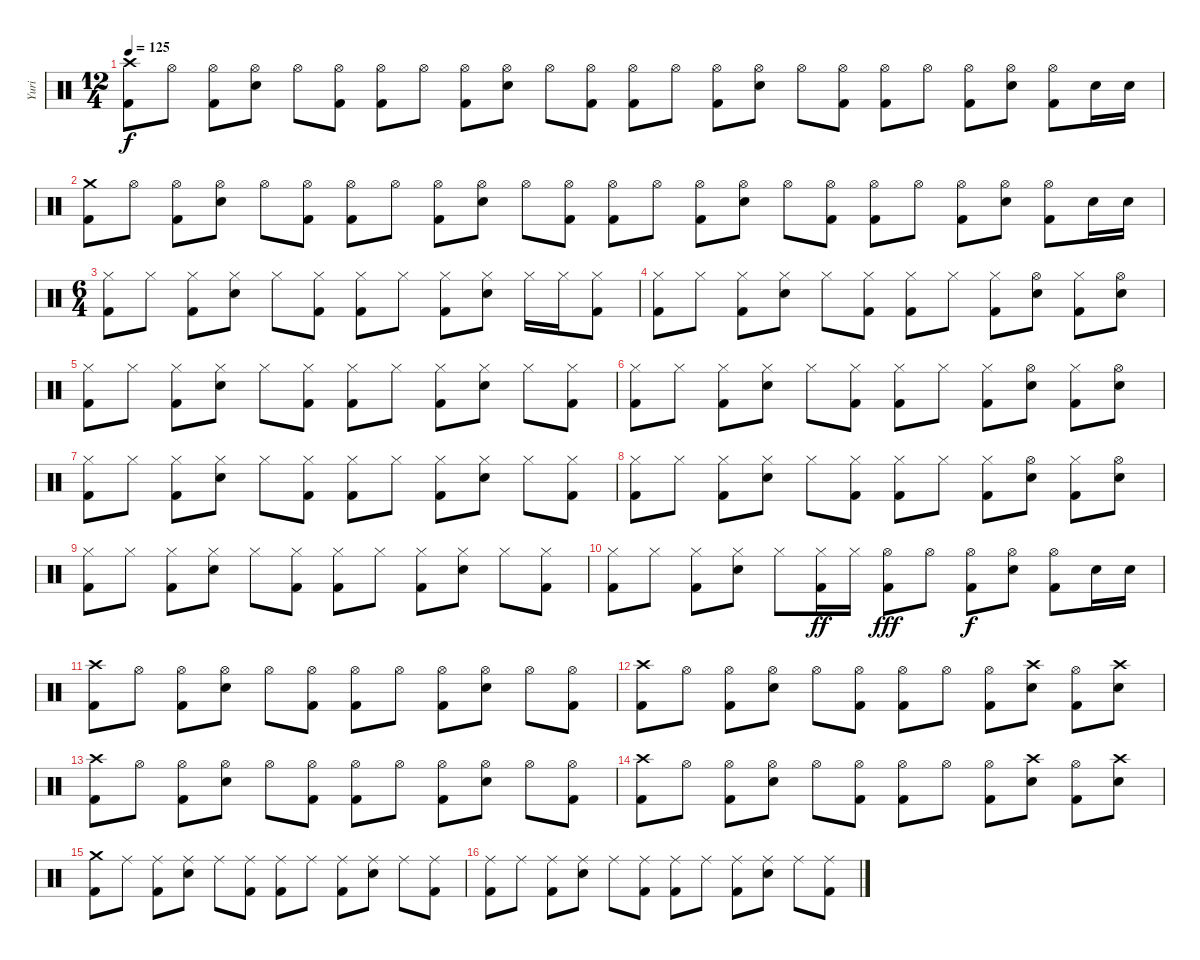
\track ("Yuri" "Yuri") {instrument percussion}
\staff {score}
\articulation defaults
\ts (12 4)
\tempo 125
\clef neutral
\ks c
("Crash high (hit)" "Kick (hit) 2").8{dy f} "Hi-Hat (open)".8 ("Hi-Hat (open)" "Kick (hit) 2").8 ("Hi-Hat (open)" "Electric Snare (hit)").8 "Hi-Hat (open)".8 ("Hi-Hat (open)" "Kick (hit) 2").8 ("Hi-Hat (open)" "Kick (hit) 2").8 "Hi-Hat (open)".8 ("Hi-Hat (open)" "Kick (hit) 2").8 ("Hi-Hat (open)" "Electric Snare (hit)").8 "Hi-Hat (open)".8 ("Hi-Hat (open)" "Kick (hit) 2").8 ("Hi-Hat (open)" "Kick (hit) 2").8 "Hi-Hat (open)".8 ("Hi-Hat (open)" "Kick (hit) 2").8 ("Hi-Hat (open)" "Electric Snare (hit)").8 "Hi-Hat (open)".8 ("Hi-Hat (open)" "Kick (hit) 2").8 ("Hi-Hat (open)" "Kick (hit) 2").8 "Hi-Hat (open)".8 ("Hi-Hat (open)" "Kick (hit) 2").8 ("Hi-Hat (open)" "Electric Snare (hit)").8 ("Hi-Hat (open)" "Kick (hit) 2").8 "Electric Snare (hit)".16 "Electric Snare (hit)".16 |
("Crash medium (hit)" "Kick (hit) 2").8 "Hi-Hat (open)".8 ("Hi-Hat (open)" "Kick (hit) 2").8 ("Hi-Hat (open)" "Electric Snare (hit)").8 "Hi-Hat (open)".8 ("Hi-Hat (open)" "Kick (hit) 2").8 ("Hi-Hat (open)" "Kick (hit) 2").8 "Hi-Hat (open)".8 ("Hi-Hat (open)" "Kick (hit) 2").8 ("Hi-Hat (open)" "Electric Snare (hit)").8 "Hi-Hat (open)".8 ("Hi-Hat (open)" "Kick (hit) 2").8 ("Hi-Hat (open)" "Kick (hit) 2").8 "Hi-Hat (open)".8 ("Hi-Hat (open)" "Kick (hit) 2").8 ("Hi-Hat (open)" "Electric Snare (hit)").8 "Hi-Hat (open)".8 ("Hi-Hat (open)" "Kick (hit) 2").8 ("Hi-Hat (open)" "Kick (hit) 2").8 "Hi-Hat (open)".8 ("Hi-Hat (open)" "Kick (hit) 2").8 ("Hi-Hat (open)" "Electric Snare (hit)").8 ("Hi-Hat (open)" "Kick (hit) 2").8 "Electric Snare (hit)".16 "Electric Snare (hit)".16 |
\ts (6 4)
("Hi-Hat (closed)" "Kick (hit) 2").8 "Hi-Hat (closed)".8 ("Hi-Hat (closed)" "Kick (hit) 2").8 ("Hi-Hat (closed)" "Electric Snare (hit)").8 "Hi-Hat (closed)".8 ("Hi-Hat (closed)" "Kick (hit) 2").8 ("Hi-Hat (closed)" "Kick (hit) 2").8 "Hi-Hat (closed)".8 ("Hi-Hat (closed)" "Kick (hit) 2").8 ("Hi-Hat (closed)" "Electric Snare (hit)").8 "Hi-Hat (closed)".16 "Hi-Hat (closed)".16 ("Hi-Hat (closed)" "Kick (hit) 2").8 |
("Hi-Hat (closed)" "Kick (hit) 2").8 "Hi-Hat (closed)".8 ("Hi-Hat (closed)" "Kick (hit) 2").8 ("Hi-Hat (closed)" "Electric Snare (hit)").8 "Hi-Hat (closed)".8 ("Hi-Hat (closed)" "Kick (hit) 2").8 ("Hi-Hat (closed)" "Kick (hit) 2").8 "Hi-Hat (closed)".8 ("Hi-Hat (closed)" "Kick (hit) 2").8 ("Hi-Hat (open)" "Electric Snare (hit)").8 ("Hi-Hat (closed)" "Kick (hit) 2").8 ("Hi-Hat (open)" "Electric Snare (hit)").8 |
("Hi-Hat (closed)" "Kick (hit) 2").8 "Hi-Hat (closed)".8 ("Hi-Hat (closed)" "Kick (hit) 2").8 ("Hi-Hat (closed)" "Electric Snare (hit)").8 "Hi-Hat (closed)".8 ("Hi-Hat (closed)" "Kick (hit) 2").8 ("Hi-Hat (closed)" "Kick (hit) 2").8 "Hi-Hat (closed)".8 ("Hi-Hat (closed)" "Kick (hit) 2").8 ("Hi-Hat (closed)" "Electric Snare (hit)").8 "Hi-Hat (closed)".8 ("Hi-Hat (closed)" "Kick (hit) 2").8 |
("Hi-Hat (closed)" "Kick (hit) 2").8 "Hi-Hat (closed)".8 ("Hi-Hat (closed)" "Kick (hit) 2").8 ("Hi-Hat (closed)" "Electric Snare (hit)").8 "Hi-Hat (closed)".8 ("Hi-Hat (closed)" "Kick (hit) 2").8 ("Hi-Hat (closed)" "Kick (hit) 2").8 "Hi-Hat (closed)".8 ("Hi-Hat (closed)" "Kick (hit) 2").8 ("Hi-Hat (open)" "Electric Snare (hit)").8 ("Hi-Hat (closed)" "Kick (hit) 2").8 ("Hi-Hat (open)" "Electric Snare (hit)").8 |
("Hi-Hat (closed)" "Kick (hit) 2").8 "Hi-Hat (closed)".8 ("Hi-Hat (closed)" "Kick (hit) 2").8 ("Hi-Hat (closed)" "Electric Snare (hit)").8 "Hi-Hat (closed)".8 ("Hi-Hat (closed)" "Kick (hit) 2").8 ("Hi-Hat (closed)" "Kick (hit) 2").8 "Hi-Hat (closed)".8 ("Hi-Hat (closed)" "Kick (hit) 2").8 ("Hi-Hat (closed)" "Electric Snare (hit)").8 "Hi-Hat (closed)".8 ("Hi-Hat (closed)" "Kick (hit) 2").8 |
("Hi-Hat (closed)" "Kick (hit) 2").8 "Hi-Hat (closed)".8 ("Hi-Hat (closed)" "Kick (hit) 2").8 ("Hi-Hat (closed)" "Electric Snare (hit)").8 "Hi-Hat (closed)".8 ("Hi-Hat (closed)" "Kick (hit) 2").8 ("Hi-Hat (closed)" "Kick (hit) 2").8 "Hi-Hat (closed)".8 ("Hi-Hat (closed)" "Kick (hit) 2").8 ("Hi-Hat (open)" "Electric Snare (hit)").8 ("Hi-Hat (closed)" "Kick (hit) 2").8 ("Hi-Hat (open)" "Electric Snare (hit)").8 |
("Hi-Hat (closed)" "Kick (hit) 2").8 "Hi-Hat (closed)".8 ("Hi-Hat (closed)" "Kick (hit) 2").8 ("Hi-Hat (closed)" "Electric Snare (hit)").8 "Hi-Hat (closed)".8 ("Hi-Hat (closed)" "Kick (hit) 2").8 ("Hi-Hat (closed)" "Kick (hit) 2").8 "Hi-Hat (closed)".8 ("Hi-Hat (closed)" "Kick (hit) 2").8 ("Hi-Hat (closed)" "Electric Snare (hit)").8 "Hi-Hat (closed)".8 ("Hi-Hat (closed)" "Kick (hit) 2").8 |
("Hi-Hat (closed)" "Kick (hit) 2").8 "Hi-Hat (closed)".8 ("Hi-Hat (closed)" "Kick (hit) 2").8 ("Hi-Hat (closed)" "Electric Snare (hit)").8 "Hi-Hat (closed)".8 ("Hi-Hat (closed)" "Kick (hit) 2").16{dy ff} "Hi-Hat (closed)".16 ("Hi-Hat (open)" "Kick (hit) 2").8{dy fff} "Hi-Hat (open)".8 ("Hi-Hat (open)" "Kick (hit) 2").8{dy f} ("Hi-Hat (open)" "Electric Snare (hit)").8 ("Hi-Hat (open)" "Kick (hit) 2").8 "Electric Snare (hit)".16 "Electric Snare (hit)".16 |
("Crash high (hit)" "Kick (hit) 2").8 "Hi-Hat (open)".8 ("Hi-Hat (open)" "Kick (hit) 2").8 ("Hi-Hat (open)" "Electric Snare (hit)").8 "Hi-Hat (open)".8 ("Hi-Hat (open)" "Kick (hit) 2").8 ("Hi-Hat (open)" "Kick (hit) 2").8 "Hi-Hat (open)".8 ("Hi-Hat (open)" "Kick (hit) 2").8 ("Hi-Hat (open)" "Electric Snare (hit)").8 "Hi-Hat (open)".8 ("Hi-Hat (open)" "Kick (hit) 2").8 |
("Crash high (hit)" "Kick (hit) 2").8 "Hi-Hat (open)".8 ("Hi-Hat (open)" "Kick (hit) 2").8 ("Hi-Hat (open)" "Electric Snare (hit)").8 "Hi-Hat (open)".8 ("Hi-Hat (open)" "Kick (hit) 2").8 ("Hi-Hat (open)" "Kick (hit) 2").8 "Hi-Hat (open)".8 ("Hi-Hat (open)" "Kick (hit) 2").8 ("Crash high (hit)" "Electric Snare (hit)").8 ("Hi-Hat (open)" "Kick (hit) 2").8 ("Crash high (hit)" "Electric Snare (hit)").8 |
("Crash high (hit)" "Kick (hit) 2").8 "Hi-Hat (open)".8 ("Hi-Hat (open)" "Kick (hit) 2").8 ("Hi-Hat (open)" "Electric Snare (hit)").8 "Hi-Hat (open)".8 ("Hi-Hat (open)" "Kick (hit) 2").8 ("Hi-Hat (open)" "Kick (hit) 2").8 "Hi-Hat (open)".8 ("Hi-Hat (open)" "Kick (hit) 2").8 ("Hi-Hat (open)" "Electric Snare (hit)").8 "Hi-Hat (open)".8 ("Hi-Hat (open)" "Kick (hit) 2").8 |
("Crash high (hit)" "Kick (hit) 2").8 "Hi-Hat (open)".8 ("Hi-Hat (open)" "Kick (hit) 2").8 ("Hi-Hat (open)" "Electric Snare (hit)").8 "Hi-Hat (open)".8 ("Hi-Hat (open)" "Kick (hit) 2").8 ("Hi-Hat (open)" "Kick (hit) 2").8 "Hi-Hat (open)".8 ("Hi-Hat (open)" "Kick (hit) 2").8 ("Crash high (hit)" "Electric Snare (hit)").8 ("Hi-Hat (open)" "Kick (hit) 2").8 ("Crash high (hit)" "Electric Snare (hit)").8 |
("Crash medium (hit)" "Kick (hit) 2").8 "Ride (middle)".8 ("Ride (middle)" "Kick (hit) 2").8 ("Ride (middle)" "Electric Snare (hit)").8 "Ride (middle)".8 ("Ride (middle)" "Kick (hit) 2").8 ("Ride (middle)" "Kick (hit) 2").8 "Ride (middle)".8 ("Ride (middle)" "Kick (hit) 2").8 ("Ride (middle)" "Electric Snare (hit)").8 "Ride (middle)".8 ("Ride (middle)" "Kick (hit) 2").8 |
("Ride (middle)" "Kick (hit) 2").8 "Ride (middle)".8 ("Ride (middle)" "Kick (hit) 2").8 ("Ride (middle)" "Electric Snare (hit)").8 "Ride (middle)".8 ("Ride (middle)" "Kick (hit) 2").8 ("Ride (middle)" "Kick (hit) 2").8 "Ride (middle)".8 ("Ride (middle)" "Kick (hit) 2").8 ("Ride (middle)" "Electric Snare (hit)").8 "Ride (middle)".8 ("Ride (middle)" "Kick (hit) 2").8
